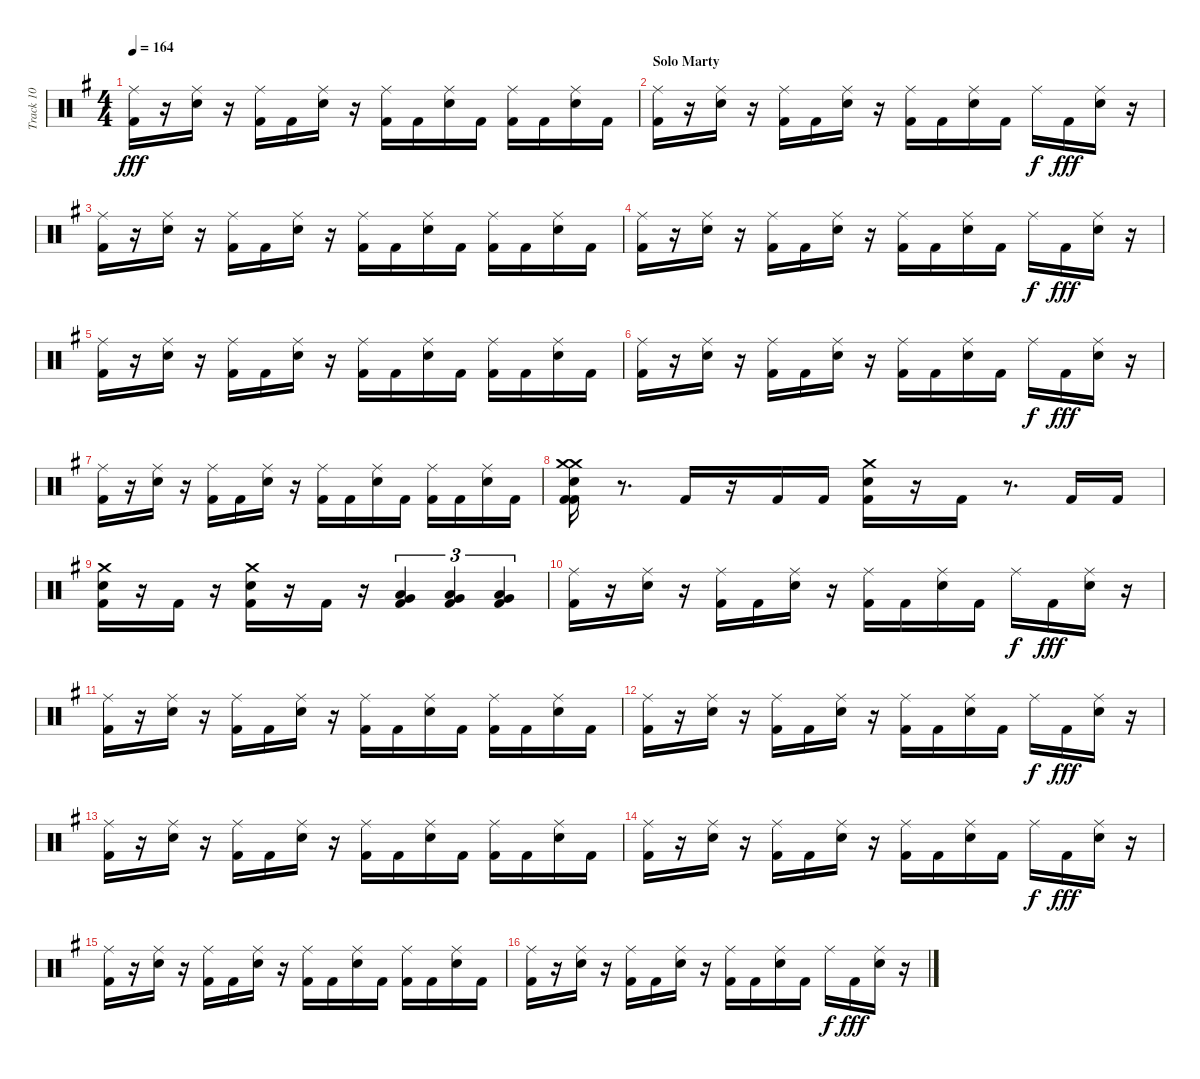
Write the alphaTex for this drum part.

\track ("Track 10" "Track 10") {instrument percussion}
\staff {score}
\articulation defaults
\ts (4 4)
\tempo 164
\clef neutral
\ks eminor
("Kick (hit) 2" "Ride (middle)").16{dy fff} r.16 ("Electric Snare (hit)" "Ride (middle)").16 r.16 ("Kick (hit) 2" "Ride (middle)").16 "Kick (hit) 2".16 ("Electric Snare (hit)" "Ride (middle)").16 r.16 ("Kick (hit) 2" "Ride (middle)").16 "Kick (hit) 2".16 ("Electric Snare (hit)" "Ride (middle)").16 "Kick (hit) 2".16 ("Kick (hit) 2" "Ride (middle)").16 "Kick (hit) 2".16 ("Electric Snare (hit)" "Ride (middle)").16 "Kick (hit) 2".16 |
\section ("" "Solo Marty")
("Kick (hit) 2" "Ride (middle)").16 r.16 ("Electric Snare (hit)" "Ride (middle)").16 r.16 ("Kick (hit) 2" "Ride (middle)").16 "Kick (hit) 2".16 ("Electric Snare (hit)" "Ride (middle)").16 r.16 ("Kick (hit) 2" "Ride (middle)").16 "Kick (hit) 2".16 ("Electric Snare (hit)" "Ride (middle)").16 "Kick (hit) 2".16 "Ride (middle)".16{dy f} "Kick (hit) 2".16{dy fff} ("Electric Snare (hit)" "Ride (middle)").16 r.16 |
("Kick (hit) 2" "Ride (middle)").16 r.16 ("Electric Snare (hit)" "Ride (middle)").16 r.16 ("Kick (hit) 2" "Ride (middle)").16 "Kick (hit) 2".16 ("Electric Snare (hit)" "Ride (middle)").16 r.16 ("Kick (hit) 2" "Ride (middle)").16 "Kick (hit) 2".16 ("Electric Snare (hit)" "Ride (middle)").16 "Kick (hit) 2".16 ("Kick (hit) 2" "Ride (middle)").16 "Kick (hit) 2".16 ("Electric Snare (hit)" "Ride (middle)").16 "Kick (hit) 2".16 |
("Kick (hit) 2" "Ride (middle)").16 r.16 ("Electric Snare (hit)" "Ride (middle)").16 r.16 ("Kick (hit) 2" "Ride (middle)").16 "Kick (hit) 2".16 ("Electric Snare (hit)" "Ride (middle)").16 r.16 ("Kick (hit) 2" "Ride (middle)").16 "Kick (hit) 2".16 ("Electric Snare (hit)" "Ride (middle)").16 "Kick (hit) 2".16 "Ride (middle)".16{dy f} "Kick (hit) 2".16{dy fff} ("Electric Snare (hit)" "Ride (middle)").16 r.16 |
("Kick (hit) 2" "Ride (middle)").16 r.16 ("Electric Snare (hit)" "Ride (middle)").16 r.16 ("Kick (hit) 2" "Ride (middle)").16 "Kick (hit) 2".16 ("Electric Snare (hit)" "Ride (middle)").16 r.16 ("Kick (hit) 2" "Ride (middle)").16 "Kick (hit) 2".16 ("Electric Snare (hit)" "Ride (middle)").16 "Kick (hit) 2".16 ("Kick (hit) 2" "Ride (middle)").16 "Kick (hit) 2".16 ("Electric Snare (hit)" "Ride (middle)").16 "Kick (hit) 2".16 |
("Kick (hit) 2" "Ride (middle)").16 r.16 ("Electric Snare (hit)" "Ride (middle)").16 r.16 ("Kick (hit) 2" "Ride (middle)").16 "Kick (hit) 2".16 ("Electric Snare (hit)" "Ride (middle)").16 r.16 ("Kick (hit) 2" "Ride (middle)").16 "Kick (hit) 2".16 ("Electric Snare (hit)" "Ride (middle)").16 "Kick (hit) 2".16 "Ride (middle)".16{dy f} "Kick (hit) 2".16{dy fff} ("Electric Snare (hit)" "Ride (middle)").16 r.16 |
("Kick (hit) 2" "Ride (middle)").16 r.16 ("Electric Snare (hit)" "Ride (middle)").16 r.16 ("Kick (hit) 2" "Ride (middle)").16 "Kick (hit) 2".16 ("Electric Snare (hit)" "Ride (middle)").16 r.16 ("Kick (hit) 2" "Ride (middle)").16 "Kick (hit) 2".16 ("Electric Snare (hit)" "Ride (middle)").16 "Kick (hit) 2".16 ("Kick (hit) 2" "Ride (middle)").16 "Kick (hit) 2".16 ("Electric Snare (hit)" "Ride (middle)").16 "Kick (hit) 2".16 |
("Kick (hit) 2" "Kick (hit) 2" "Electric Snare (hit)" "Crash medium (hit)" "Crash medium (hit)").16 r.8{d} "Kick (hit) 2".16 r.16 "Kick (hit) 2".16 "Kick (hit) 2".16 ("Electric Snare (hit)" "Kick (hit) 2" "Crash medium (hit)").16 r.16 "Kick (hit) 2".16 r.8{d} "Kick (hit) 2".16 "Kick (hit) 2".16 |
("Kick (hit) 2" "Electric Snare (hit)" "Crash medium (hit)").16 r.16 "Kick (hit) 2".16 r.16 ("Kick (hit) 2" "Electric Snare (hit)" "Crash medium (hit)").16 r.16 "Kick (hit) 2".16 r.16 ("Kick (hit) 2" "Very Low Tom (hit)" "Low Floor Tom (hit)").4{tu (3 2)} ("Kick (hit) 2" "Very Low Tom (hit)" "Low Floor Tom (hit)").4{tu (3 2)} ("Kick (hit) 2" "Low Floor Tom (hit)" "Very Low Tom (hit)").4{tu (3 2)} |
("Kick (hit) 2" "Ride (middle)").16 r.16 ("Electric Snare (hit)" "Ride (middle)").16 r.16 ("Kick (hit) 2" "Ride (middle)").16 "Kick (hit) 2".16 ("Electric Snare (hit)" "Ride (middle)").16 r.16 ("Kick (hit) 2" "Ride (middle)").16 "Kick (hit) 2".16 ("Electric Snare (hit)" "Ride (middle)").16 "Kick (hit) 2".16 "Ride (middle)".16{dy f} "Kick (hit) 2".16{dy fff} ("Electric Snare (hit)" "Ride (middle)").16 r.16 |
("Kick (hit) 2" "Ride (middle)").16 r.16 ("Electric Snare (hit)" "Ride (middle)").16 r.16 ("Kick (hit) 2" "Ride (middle)").16 "Kick (hit) 2".16 ("Electric Snare (hit)" "Ride (middle)").16 r.16 ("Kick (hit) 2" "Ride (middle)").16 "Kick (hit) 2".16 ("Electric Snare (hit)" "Ride (middle)").16 "Kick (hit) 2".16 ("Kick (hit) 2" "Ride (middle)").16 "Kick (hit) 2".16 ("Electric Snare (hit)" "Ride (middle)").16 "Kick (hit) 2".16 |
("Kick (hit) 2" "Ride (middle)").16 r.16 ("Electric Snare (hit)" "Ride (middle)").16 r.16 ("Kick (hit) 2" "Ride (middle)").16 "Kick (hit) 2".16 ("Electric Snare (hit)" "Ride (middle)").16 r.16 ("Kick (hit) 2" "Ride (middle)").16 "Kick (hit) 2".16 ("Electric Snare (hit)" "Ride (middle)").16 "Kick (hit) 2".16 "Ride (middle)".16{dy f} "Kick (hit) 2".16{dy fff} ("Electric Snare (hit)" "Ride (middle)").16 r.16 |
("Kick (hit) 2" "Ride (middle)").16 r.16 ("Electric Snare (hit)" "Ride (middle)").16 r.16 ("Kick (hit) 2" "Ride (middle)").16 "Kick (hit) 2".16 ("Electric Snare (hit)" "Ride (middle)").16 r.16 ("Kick (hit) 2" "Ride (middle)").16 "Kick (hit) 2".16 ("Electric Snare (hit)" "Ride (middle)").16 "Kick (hit) 2".16 ("Kick (hit) 2" "Ride (middle)").16 "Kick (hit) 2".16 ("Electric Snare (hit)" "Ride (middle)").16 "Kick (hit) 2".16 |
("Kick (hit) 2" "Ride (middle)").16 r.16 ("Electric Snare (hit)" "Ride (middle)").16 r.16 ("Kick (hit) 2" "Ride (middle)").16 "Kick (hit) 2".16 ("Electric Snare (hit)" "Ride (middle)").16 r.16 ("Kick (hit) 2" "Ride (middle)").16 "Kick (hit) 2".16 ("Electric Snare (hit)" "Ride (middle)").16 "Kick (hit) 2".16 "Ride (middle)".16{dy f} "Kick (hit) 2".16{dy fff} ("Electric Snare (hit)" "Ride (middle)").16 r.16 |
("Kick (hit) 2" "Ride (middle)").16 r.16 ("Electric Snare (hit)" "Ride (middle)").16 r.16 ("Kick (hit) 2" "Ride (middle)").16 "Kick (hit) 2".16 ("Electric Snare (hit)" "Ride (middle)").16 r.16 ("Kick (hit) 2" "Ride (middle)").16 "Kick (hit) 2".16 ("Electric Snare (hit)" "Ride (middle)").16 "Kick (hit) 2".16 ("Kick (hit) 2" "Ride (middle)").16 "Kick (hit) 2".16 ("Electric Snare (hit)" "Ride (middle)").16 "Kick (hit) 2".16 |
("Kick (hit) 2" "Ride (middle)").16 r.16 ("Electric Snare (hit)" "Ride (middle)").16 r.16 ("Kick (hit) 2" "Ride (middle)").16 "Kick (hit) 2".16 ("Electric Snare (hit)" "Ride (middle)").16 r.16 ("Kick (hit) 2" "Ride (middle)").16 "Kick (hit) 2".16 ("Electric Snare (hit)" "Ride (middle)").16 "Kick (hit) 2".16 "Ride (middle)".16{dy f} "Kick (hit) 2".16{dy fff} ("Electric Snare (hit)" "Ride (middle)").16 r.16
